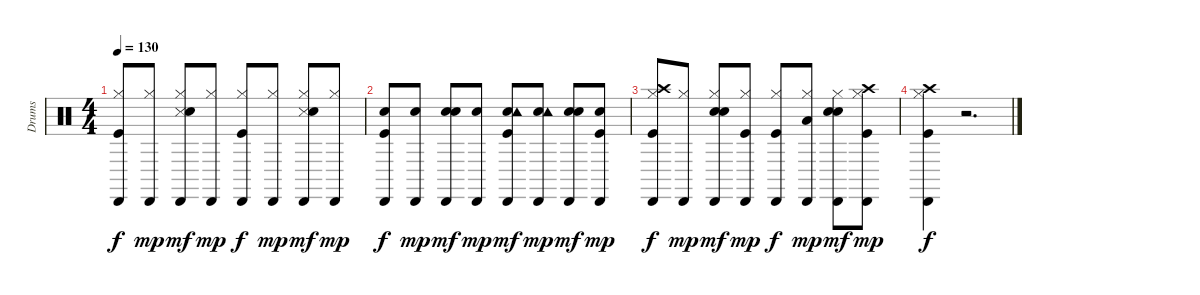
\track ("Drums" "Drums") {instrument percussion}
\staff {score}
\articulation defaults
\ts (4 4)
\tempo 130
\clef neutral
\ks c
("Kick (hit)" "Hi-Hat (closed)" "Cabasa (hit)").8{dy f} ("Hi-Hat (closed)" "Cabasa (hit)").8{dy mp} ("Hi-Hat (closed)" "Snare (side stick) 3" "Hand Clap (hit)" "Cabasa (hit)").8{dy mf} ("Hi-Hat (closed)" "Cabasa (hit)").8{dy mp} ("Kick (hit)" "Hi-Hat (closed)" "Cabasa (hit)").8{dy f} ("Hi-Hat (closed)" "Cabasa (hit)").8{dy mp} ("Hi-Hat (closed)" "Snare (side stick) 3" "Hand Clap (hit)" "Cabasa (hit)").8{dy mf} ("Hi-Hat (closed)" "Cabasa (hit)").8{dy mp} |
("Kick (hit)" "Snare (hit) 2" "Cabasa (hit)").8{dy f} ("Snare (hit) 2" "Cabasa (hit)").8{dy mp} ("Snare (hit) 2" "Hand Clap (hit)" "Cabasa (hit)").8{dy mf} ("Snare (hit) 2" "Cabasa (hit)").8{dy mp} ("Kick (hit)" "Snare (hit) 2" "Tambourine (hit)" "Cabasa (hit)").8{dy mf} ("Snare (hit) 2" "Tambourine (hit)" "Cabasa (hit)").8{dy mp} ("Snare (hit) 2" "Hand Clap (hit)" "Cabasa (hit)").8{dy mf} ("Kick (hit)" "Snare (hit) 2" "Cabasa (hit)").8{dy mp} |
("Kick (hit)" "Hi-Hat (closed)" "Crash high (hit)" "Cabasa (hit)").8{dy f} ("Hi-Hat (closed)" "Cabasa (hit)").8{dy mp} ("Snare (hit) 2" "Hi-Hat (closed)" "Hand Clap (hit)" "Cabasa (hit)").8{dy mf} ("Kick (hit)" "Hi-Hat (closed)" "Cabasa (hit)").8{dy mp} ("Kick (hit)" "Hi-Hat (closed)" "Cabasa (hit)").8{dy f} ("Hi-Hat (closed)" "Low Floor Tom (hit)" "Cabasa (hit)").8{dy mp} ("Snare (hit) 2" "Hi-Hat (closed)" "Hand Clap (hit)" "Cabasa (hit)").8{dy mf} ("Kick (hit)" "Hi-Hat (closed)" "Crash high (hit)" "Cabasa (hit)").8{dy mp} |
("Kick (hit)" "Hi-Hat (closed)" "Crash high (hit)" "Cabasa (hit)").4{dy f} r.2{d}
